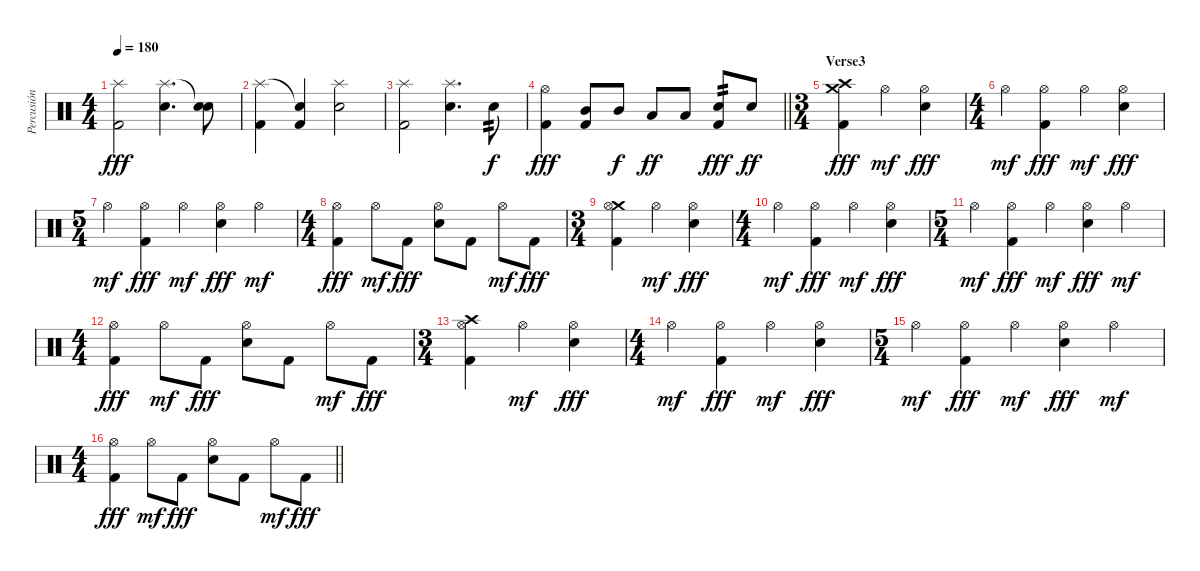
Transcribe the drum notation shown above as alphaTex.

\track ("Percusión" "Percusión") {instrument percussion}
\staff {score}
\articulation defaults
\ts (4 4)
\tempo 180
\clef neutral
\ks c
("Splash (hit)" "Kick (hit) 2").2{dy fff} ("Splash (hit)" "Electric Snare (hit)").4{d} ("Snare (hit)"{t} "Electric Snare (hit)").8 |
("Splash (hit)" "Kick (hit) 2").4 ("Snare (hit)"{t} "Kick (hit) 2").4 ("Splash (hit)" "Electric Snare (hit)").2 |
("Splash (hit)" "Kick (hit) 2").2 ("Splash (hit)" "Electric Snare (hit)").4{d} "Electric Snare (hit)".8{tp 2 dy f} |
\barLineRight lightlight
("Hi-Hat (open)" "Kick (hit) 2").4{dy fff} ("Mid Tom (hit)" "Kick (hit) 2").8 "Mid Tom (hit)".8{dy f} "Low Tom (hit)".8{dy ff} "Low Tom (hit)".8 ("Electric Snare (hit)" "Kick (hit) 2").8{tp 2 dy fff} "Electric Snare (hit)".8{dy ff} |
\ts (3 4)
\section ("" "Verse3")
("Crash medium (hit)" "Crash high (hit)" "Kick (hit) 2").4{dy fff} "Hi-Hat (open)".4{dy mf} ("Hi-Hat (open)" "Electric Snare (hit)").4{dy fff} |
\ts (4 4)
"Hi-Hat (open)".4{dy mf} ("Hi-Hat (open)" "Kick (hit) 2").4{dy fff} "Hi-Hat (open)".4{dy mf} ("Hi-Hat (open)" "Electric Snare (hit)").4{dy fff} |
\ts (5 4)
"Hi-Hat (open)".4{dy mf} ("Hi-Hat (open)" "Kick (hit) 2").4{dy fff} "Hi-Hat (open)".4{dy mf} ("Hi-Hat (open)" "Electric Snare (hit)").4{dy fff} "Hi-Hat (open)".4{dy mf} |
\ts (4 4)
("Hi-Hat (open)" "Kick (hit) 2").4{dy fff} "Hi-Hat (open)".8{dy mf} "Kick (hit) 2".8{dy fff} ("Hi-Hat (open)" "Electric Snare (hit)").8 "Kick (hit) 2".8 "Hi-Hat (open)".8{dy mf} "Kick (hit) 2".8{dy fff} |
\ts (3 4)
("Crash medium (hit)" "Hi-Hat (open)" "Kick (hit) 2").4 "Hi-Hat (open)".4{dy mf} ("Hi-Hat (open)" "Electric Snare (hit)").4{dy fff} |
\ts (4 4)
"Hi-Hat (open)".4{dy mf} ("Hi-Hat (open)" "Kick (hit) 2").4{dy fff} "Hi-Hat (open)".4{dy mf} ("Hi-Hat (open)" "Electric Snare (hit)").4{dy fff} |
\ts (5 4)
"Hi-Hat (open)".4{dy mf} ("Hi-Hat (open)" "Kick (hit) 2").4{dy fff} "Hi-Hat (open)".4{dy mf} ("Hi-Hat (open)" "Electric Snare (hit)").4{dy fff} "Hi-Hat (open)".4{dy mf} |
\ts (4 4)
("Hi-Hat (open)" "Kick (hit) 2").4{dy fff} "Hi-Hat (open)".8{dy mf} "Kick (hit) 2".8{dy fff} ("Hi-Hat (open)" "Electric Snare (hit)").8 "Kick (hit) 2".8 "Hi-Hat (open)".8{dy mf} "Kick (hit) 2".8{dy fff} |
\ts (3 4)
("Crash high (hit)" "Hi-Hat (open)" "Kick (hit) 2").4 "Hi-Hat (open)".4{dy mf} ("Hi-Hat (open)" "Electric Snare (hit)").4{dy fff} |
\ts (4 4)
"Hi-Hat (open)".4{dy mf} ("Hi-Hat (open)" "Kick (hit) 2").4{dy fff} "Hi-Hat (open)".4{dy mf} ("Hi-Hat (open)" "Electric Snare (hit)").4{dy fff} |
\ts (5 4)
"Hi-Hat (open)".4{dy mf} ("Hi-Hat (open)" "Kick (hit) 2").4{dy fff} "Hi-Hat (open)".4{dy mf} ("Hi-Hat (open)" "Electric Snare (hit)").4{dy fff} "Hi-Hat (open)".4{dy mf} |
\ts (4 4)
\barLineRight lightlight
("Hi-Hat (open)" "Kick (hit) 2").4{dy fff} "Hi-Hat (open)".8{dy mf} "Kick (hit) 2".8{dy fff} ("Hi-Hat (open)" "Electric Snare (hit)").8 "Kick (hit) 2".8 "Hi-Hat (open)".8{dy mf} "Kick (hit) 2".8{dy fff}
